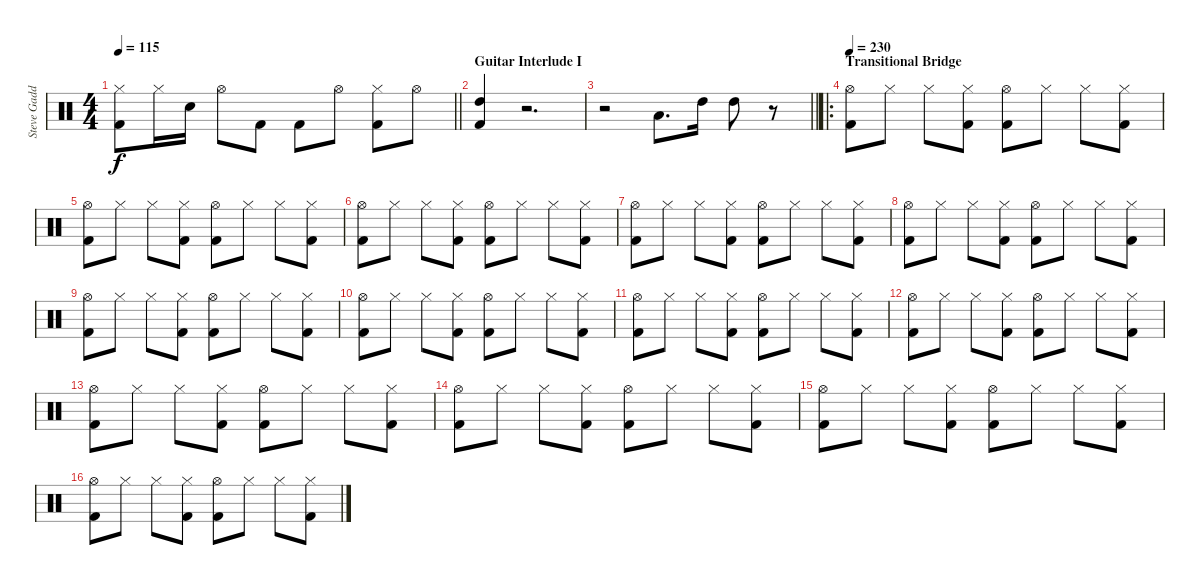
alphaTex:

\track ("Steve Gadd" "Steve Gadd") {instrument percussion}
\staff {score}
\articulation defaults
\ts (4 4)
\tempo 115
\clef neutral
\barLineRight lightlight
\ks c
("Hi-Hat (closed)" "Kick (hit) 2").8{dy f} "Hi-Hat (closed)".16 "Electric Snare (hit)".16 "Hi-Hat (open)".8 "Kick (hit) 2".8 "Kick (hit) 2".8 "Hi-Hat (open)".8 ("Hi-Hat (closed)" "Kick (hit) 2").8 "Hi-Hat (open)".8 |
\section ("" "Guitar Interlude I")
("High Tom (hit)" "Kick (hit) 2").4 r.2{d} |
\barLineRight lightlight
r.2 "Low Tom (hit)".8{d} "High Tom (hit)".16 "High Tom (hit)".8 r.8 |
\ro
\section ("" "Transitional Bridge")
\tempo 230
("Hi-Hat (open)" "Kick (hit) 2").8 "Hi-Hat (closed)".8 "Hi-Hat (closed)".8 ("Hi-Hat (closed)" "Kick (hit) 2").8 ("Hi-Hat (open)" "Kick (hit) 2").8 "Hi-Hat (closed)".8 "Hi-Hat (closed)".8 ("Hi-Hat (closed)" "Kick (hit) 2").8 |
("Hi-Hat (open)" "Kick (hit) 2").8 "Hi-Hat (closed)".8 "Hi-Hat (closed)".8 ("Hi-Hat (closed)" "Kick (hit) 2").8 ("Hi-Hat (open)" "Kick (hit) 2").8 "Hi-Hat (closed)".8 "Hi-Hat (closed)".8 ("Hi-Hat (closed)" "Kick (hit) 2").8 |
("Hi-Hat (open)" "Kick (hit) 2").8 "Hi-Hat (closed)".8 "Hi-Hat (closed)".8 ("Hi-Hat (closed)" "Kick (hit) 2").8 ("Hi-Hat (open)" "Kick (hit) 2").8 "Hi-Hat (closed)".8 "Hi-Hat (closed)".8 ("Hi-Hat (closed)" "Kick (hit) 2").8 |
("Hi-Hat (open)" "Kick (hit) 2").8 "Hi-Hat (closed)".8 "Hi-Hat (closed)".8 ("Hi-Hat (closed)" "Kick (hit) 2").8 ("Hi-Hat (open)" "Kick (hit) 2").8 "Hi-Hat (closed)".8 "Hi-Hat (closed)".8 ("Hi-Hat (closed)" "Kick (hit) 2").8 |
("Hi-Hat (open)" "Kick (hit) 2").8 "Hi-Hat (closed)".8 "Hi-Hat (closed)".8 ("Hi-Hat (closed)" "Kick (hit) 2").8 ("Hi-Hat (open)" "Kick (hit) 2").8 "Hi-Hat (closed)".8 "Hi-Hat (closed)".8 ("Hi-Hat (closed)" "Kick (hit) 2").8 |
("Hi-Hat (open)" "Kick (hit) 2").8 "Hi-Hat (closed)".8 "Hi-Hat (closed)".8 ("Hi-Hat (closed)" "Kick (hit) 2").8 ("Hi-Hat (open)" "Kick (hit) 2").8 "Hi-Hat (closed)".8 "Hi-Hat (closed)".8 ("Hi-Hat (closed)" "Kick (hit) 2").8 |
("Hi-Hat (open)" "Kick (hit) 2").8 "Hi-Hat (closed)".8 "Hi-Hat (closed)".8 ("Hi-Hat (closed)" "Kick (hit) 2").8 ("Hi-Hat (open)" "Kick (hit) 2").8 "Hi-Hat (closed)".8 "Hi-Hat (closed)".8 ("Hi-Hat (closed)" "Kick (hit) 2").8 |
("Hi-Hat (open)" "Kick (hit) 2").8 "Hi-Hat (closed)".8 "Hi-Hat (closed)".8 ("Hi-Hat (closed)" "Kick (hit) 2").8 ("Hi-Hat (open)" "Kick (hit) 2").8 "Hi-Hat (closed)".8 "Hi-Hat (closed)".8 ("Hi-Hat (closed)" "Kick (hit) 2").8 |
("Hi-Hat (open)" "Kick (hit) 2").8 "Hi-Hat (closed)".8 "Hi-Hat (closed)".8 ("Hi-Hat (closed)" "Kick (hit) 2").8 ("Hi-Hat (open)" "Kick (hit) 2").8 "Hi-Hat (closed)".8 "Hi-Hat (closed)".8 ("Hi-Hat (closed)" "Kick (hit) 2").8 |
("Hi-Hat (open)" "Kick (hit) 2").8 "Hi-Hat (closed)".8 "Hi-Hat (closed)".8 ("Hi-Hat (closed)" "Kick (hit) 2").8 ("Hi-Hat (open)" "Kick (hit) 2").8 "Hi-Hat (closed)".8 "Hi-Hat (closed)".8 ("Hi-Hat (closed)" "Kick (hit) 2").8 |
("Hi-Hat (open)" "Kick (hit) 2").8 "Hi-Hat (closed)".8 "Hi-Hat (closed)".8 ("Hi-Hat (closed)" "Kick (hit) 2").8 ("Hi-Hat (open)" "Kick (hit) 2").8 "Hi-Hat (closed)".8 "Hi-Hat (closed)".8 ("Hi-Hat (closed)" "Kick (hit) 2").8 |
("Hi-Hat (open)" "Kick (hit) 2").8 "Hi-Hat (closed)".8 "Hi-Hat (closed)".8 ("Hi-Hat (closed)" "Kick (hit) 2").8 ("Hi-Hat (open)" "Kick (hit) 2").8 "Hi-Hat (closed)".8 "Hi-Hat (closed)".8 ("Hi-Hat (closed)" "Kick (hit) 2").8 |
("Hi-Hat (open)" "Kick (hit) 2").8 "Hi-Hat (closed)".8 "Hi-Hat (closed)".8 ("Hi-Hat (closed)" "Kick (hit) 2").8 ("Hi-Hat (open)" "Kick (hit) 2").8 "Hi-Hat (closed)".8 "Hi-Hat (closed)".8 ("Hi-Hat (closed)" "Kick (hit) 2").8
